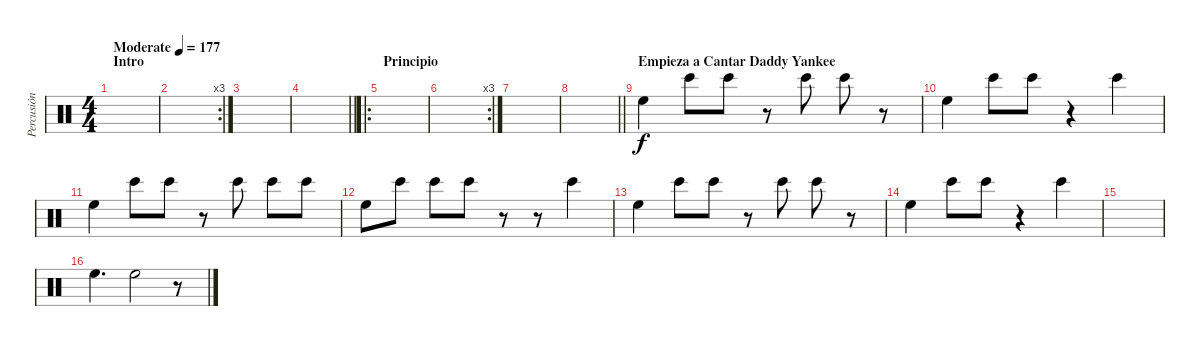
\track ("Percusión" "Percusión") {instrument percussion}
\staff {score}
\articulation defaults
\ts (4 4)
\section ("" "Intro")
\tempo (177 "Moderate")
\clef neutral
\ks c
|
\rc 3
|
|
\barLineRight lightlight
|
\ro
\section ("" "Principio")
|
\rc 3
|
|
\barLineRight lightlight
|
\section ("" "Empieza a Cantar Daddy Yankee")
"High Floor Tom (hit)".4 "Bongo High (hit)".8 "Bongo High (hit)".8 r.8 "Bongo High (hit)".8 "Bongo High (hit)".8 r.8 |
"High Floor Tom (hit)".4 "Bongo High (hit)".8 "Bongo High (hit)".8 r.4 "Bongo High (hit)".4 |
"High Floor Tom (hit)".4 "Bongo High (hit)".8 "Bongo High (hit)".8 r.8 "Bongo High (hit)".8 "Bongo High (hit)".8 "Bongo High (hit)".8 |
"High Floor Tom (hit)".8 "Bongo High (hit)".8 "Bongo High (hit)".8 "Bongo High (hit)".8 r.8 r.8 "Bongo High (hit)".4 |
"High Floor Tom (hit)".4 "Bongo High (hit)".8 "Bongo High (hit)".8 r.8 "Bongo High (hit)".8 "Bongo High (hit)".8 r.8 |
"High Floor Tom (hit)".4 "Bongo High (hit)".8 "Bongo High (hit)".8 r.4 "Bongo High (hit)".4 |
|
"High Floor Tom (hit)".4{d dy f} "High Floor Tom (hit)".2 r.8
